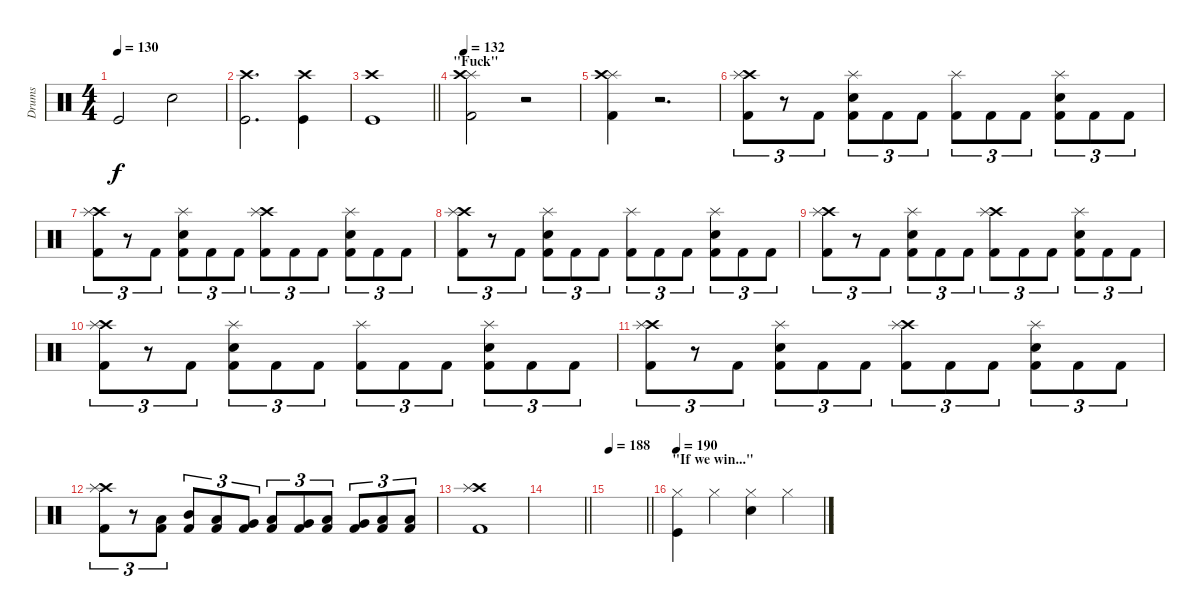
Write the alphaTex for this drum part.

\track ("Drums" "Drums") {instrument percussion}
\staff {score}
\articulation defaults
\ts (4 4)
\tempo 130
\clef neutral
\ks c "Kick (hit)".2{dy f} "Electric Snare (hit)".2
|
("Crash high (hit)" "Kick (hit)").2{d} ("Crash high (hit)" "Kick (hit)").4 |
\barLineRight lightlight
("Crash high (hit)" "Kick (hit)").1 |
\section ("" "\"Fuck\"")
\tempo 132
("Kick (hit) 2" "Splash (hit)" "Crash high (hit)").2 r.2 |
("Kick (hit) 2" "Splash (hit)" "Crash high (hit)").4 r.2{d} |
("Kick (hit) 2" "Crash high (hit)" "Splash (hit)").8{tu (3 2)} r.8{tu (3 2)} "Kick (hit) 2".8{tu (3 2)} ("Kick (hit) 2" "Electric Snare (hit)" "Splash (hit)").8{tu (3 2)} "Kick (hit) 2".8{tu (3 2)} "Kick (hit) 2".8{tu (3 2)} ("Kick (hit) 2" "Splash (hit)").8{tu (3 2)} "Kick (hit) 2".8{tu (3 2)} "Kick (hit) 2".8{tu (3 2)} ("Kick (hit) 2" "Electric Snare (hit)" "Splash (hit)").8{tu (3 2)} "Kick (hit) 2".8{tu (3 2)} "Kick (hit) 2".8{tu (3 2)} |
("Kick (hit) 2" "Crash high (hit)" "Splash (hit)").8{tu (3 2)} r.8{tu (3 2)} "Kick (hit) 2".8{tu (3 2)} ("Kick (hit) 2" "Electric Snare (hit)" "Splash (hit)").8{tu (3 2)} "Kick (hit) 2".8{tu (3 2)} "Kick (hit) 2".8{tu (3 2)} ("Kick (hit) 2" "Crash high (hit)" "Splash (hit)").8{tu (3 2)} "Kick (hit) 2".8{tu (3 2)} "Kick (hit) 2".8{tu (3 2)} ("Kick (hit) 2" "Electric Snare (hit)" "Splash (hit)").8{tu (3 2)} "Kick (hit) 2".8{tu (3 2)} "Kick (hit) 2".8{tu (3 2)} |
("Kick (hit) 2" "Crash high (hit)" "Splash (hit)").8{tu (3 2)} r.8{tu (3 2)} "Kick (hit) 2".8{tu (3 2)} ("Kick (hit) 2" "Electric Snare (hit)" "Splash (hit)").8{tu (3 2)} "Kick (hit) 2".8{tu (3 2)} "Kick (hit) 2".8{tu (3 2)} ("Kick (hit) 2" "Splash (hit)").8{tu (3 2)} "Kick (hit) 2".8{tu (3 2)} "Kick (hit) 2".8{tu (3 2)} ("Kick (hit) 2" "Electric Snare (hit)" "Splash (hit)").8{tu (3 2)} "Kick (hit) 2".8{tu (3 2)} "Kick (hit) 2".8{tu (3 2)} |
("Kick (hit) 2" "Crash high (hit)" "Splash (hit)").8{tu (3 2)} r.8{tu (3 2)} "Kick (hit) 2".8{tu (3 2)} ("Kick (hit) 2" "Electric Snare (hit)" "Splash (hit)").8{tu (3 2)} "Kick (hit) 2".8{tu (3 2)} "Kick (hit) 2".8{tu (3 2)} ("Kick (hit) 2" "Crash high (hit)" "Splash (hit)").8{tu (3 2)} "Kick (hit) 2".8{tu (3 2)} "Kick (hit) 2".8{tu (3 2)} ("Kick (hit) 2" "Electric Snare (hit)" "Splash (hit)").8{tu (3 2)} "Kick (hit) 2".8{tu (3 2)} "Kick (hit) 2".8{tu (3 2)} |
("Kick (hit) 2" "Crash high (hit)" "Splash (hit)").8{tu (3 2)} r.8{tu (3 2)} "Kick (hit) 2".8{tu (3 2)} ("Kick (hit) 2" "Electric Snare (hit)" "Splash (hit)").8{tu (3 2)} "Kick (hit) 2".8{tu (3 2)} "Kick (hit) 2".8{tu (3 2)} ("Kick (hit) 2" "Splash (hit)").8{tu (3 2)} "Kick (hit) 2".8{tu (3 2)} "Kick (hit) 2".8{tu (3 2)} ("Kick (hit) 2" "Electric Snare (hit)" "Splash (hit)").8{tu (3 2)} "Kick (hit) 2".8{tu (3 2)} "Kick (hit) 2".8{tu (3 2)} |
("Kick (hit) 2" "Crash high (hit)" "Splash (hit)").8{tu (3 2)} r.8{tu (3 2)} "Kick (hit) 2".8{tu (3 2)} ("Kick (hit) 2" "Electric Snare (hit)" "Splash (hit)").8{tu (3 2)} "Kick (hit) 2".8{tu (3 2)} "Kick (hit) 2".8{tu (3 2)} ("Kick (hit) 2" "Crash high (hit)" "Splash (hit)").8{tu (3 2)} "Kick (hit) 2".8{tu (3 2)} "Kick (hit) 2".8{tu (3 2)} ("Kick (hit) 2" "Electric Snare (hit)" "Splash (hit)").8{tu (3 2)} "Kick (hit) 2".8{tu (3 2)} "Kick (hit) 2".8{tu (3 2)} |
("Kick (hit) 2" "Crash high (hit)" "Splash (hit)").8{tu (3 2)} r.8{tu (3 2)} ("Kick (hit) 2" "Low Tom (hit)").8{tu (3 2)} ("Kick (hit) 2" "Mid Tom (hit)").8{tu (3 2)} ("Kick (hit) 2" "Low Tom (hit)").8{tu (3 2)} ("Kick (hit) 2" "Very Low Tom (hit)").8{tu (3 2)} ("Kick (hit) 2" "Low Tom (hit)").8{tu (3 2)} ("Kick (hit) 2" "Very Low Tom (hit)").8{tu (3 2)} ("Kick (hit) 2" "Low Floor Tom (hit)").8{tu (3 2)} ("Kick (hit) 2" "Very Low Tom (hit)").8{tu (3 2)} ("Kick (hit) 2" "Low Floor Tom (hit)").8{tu (3 2)} ("Kick (hit) 2" "Low Floor Tom (hit)").8{tu (3 2)} |
("Kick (hit) 2" "Crash high (hit)" "Splash (hit)").1 |
\barLineRight lightlight
|
\tempo 188
\barLineRight lightlight
|
\section ("" "\"If we win...\"")
\tempo 190
("Kick (hit)" "Hi-Hat (closed)").4 "Hi-Hat (closed)".4 ("Electric Snare (hit)" "Hi-Hat (closed)").4 "Hi-Hat (closed)".4
